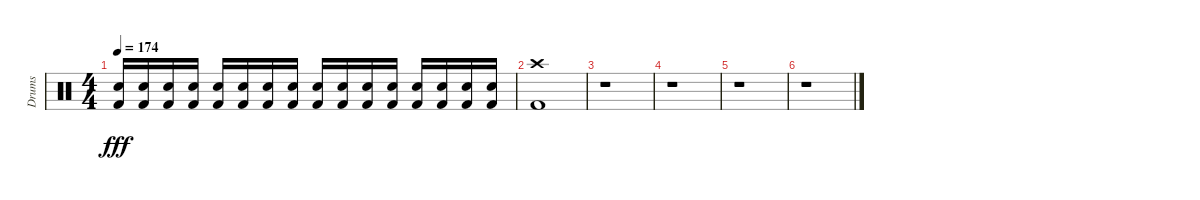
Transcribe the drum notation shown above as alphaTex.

\track ("Drums" "Drums") {instrument percussion}
\staff {score}
\articulation defaults
\ts (4 4)
\tempo 174
\clef neutral
\ks c
("Snare (hit) 2" "Kick (hit) 2").16{dy fff} ("Snare (hit) 2" "Kick (hit) 2").16 ("Snare (hit) 2" "Kick (hit) 2").16 ("Snare (hit) 2" "Kick (hit) 2").16 ("Snare (hit) 2" "Kick (hit) 2").16 ("Snare (hit) 2" "Kick (hit) 2").16 ("Snare (hit) 2" "Kick (hit) 2").16 ("Snare (hit) 2" "Kick (hit) 2").16 ("Snare (hit) 2" "Kick (hit) 2").16 ("Snare (hit) 2" "Kick (hit) 2").16 ("Snare (hit) 2" "Kick (hit) 2").16 ("Snare (hit) 2" "Kick (hit) 2").16 ("Snare (hit) 2" "Kick (hit) 2").16 ("Snare (hit) 2" "Kick (hit) 2").16 ("Snare (hit) 2" "Kick (hit) 2").16 ("Snare (hit) 2" "Kick (hit) 2").16 |
("Crash high (hit)" "Kick (hit) 2").1 |
r.1 |
r.1 |
r.1 |
r.1
